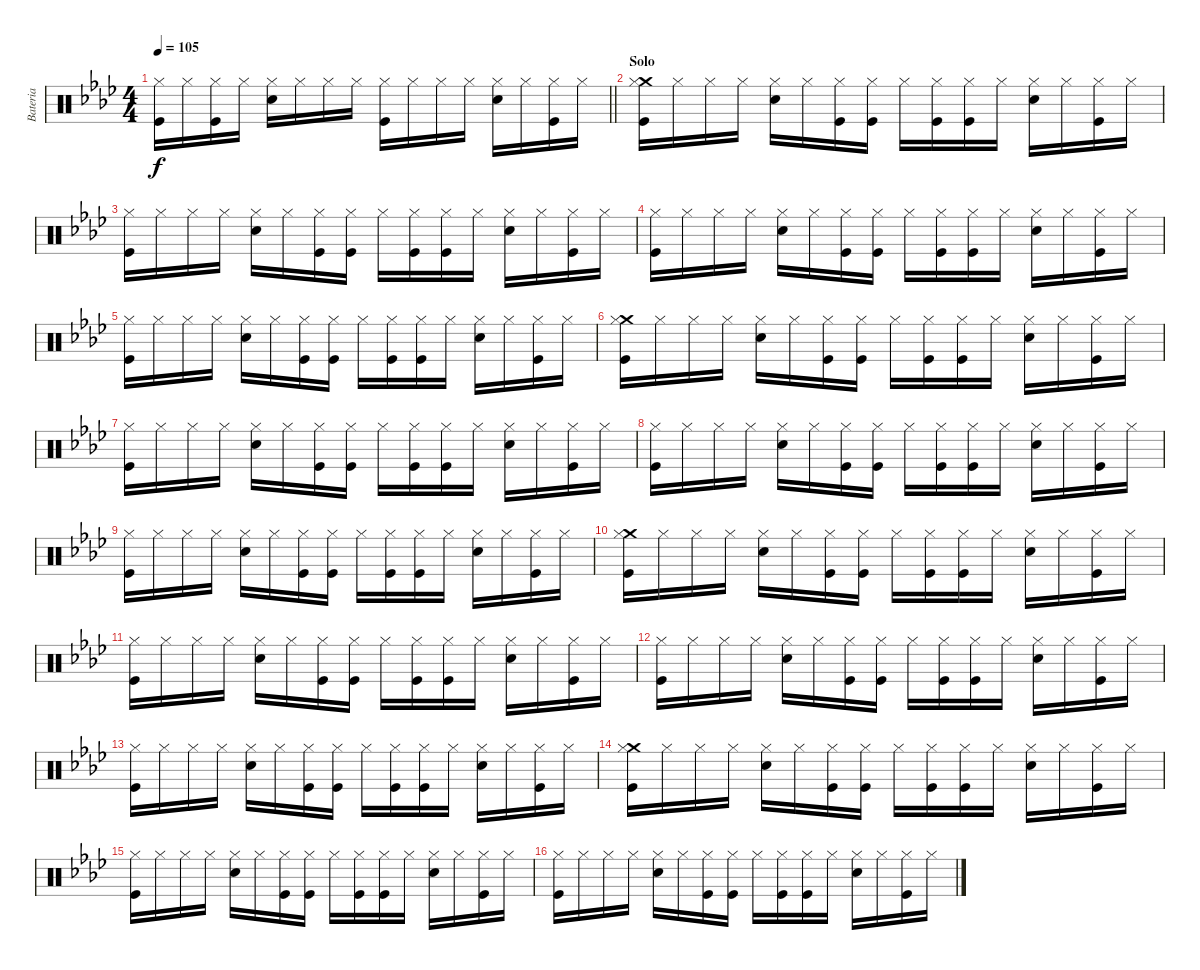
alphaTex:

\track ("Bateria" "Bateria") {instrument percussion}
\staff {score}
\articulation defaults
\ts (4 4)
\tempo 105
\clef neutral
\barLineRight lightlight
\ks fminor
("Kick (hit)" "Hi-Hat (closed)").16{dy f} "Hi-Hat (closed)".16 ("Kick (hit)" "Hi-Hat (closed)").16 "Hi-Hat (closed)".16 ("Snare (hit) 2" "Hi-Hat (closed)").16 "Hi-Hat (closed)".16 "Hi-Hat (closed)".16 "Hi-Hat (closed)".16 ("Hi-Hat (closed)" "Kick (hit)").16 "Hi-Hat (closed)".16 "Hi-Hat (closed)".16 "Hi-Hat (closed)".16 ("Hi-Hat (closed)" "Snare (hit) 2").16 "Hi-Hat (closed)".16 ("Hi-Hat (closed)" "Kick (hit)").16 "Hi-Hat (closed)".16 |
\section ("" "Solo")
("Crash medium (hit)" "Kick (hit)" "Hi-Hat (closed)").16 "Hi-Hat (closed)".16 "Hi-Hat (closed)".16 "Hi-Hat (closed)".16 ("Snare (hit) 2" "Hi-Hat (closed)").16 "Hi-Hat (closed)".16 ("Hi-Hat (closed)" "Kick (hit)").16 ("Hi-Hat (closed)" "Kick (hit)").16 "Hi-Hat (closed)".16 ("Kick (hit)" "Hi-Hat (closed)").16 ("Hi-Hat (closed)" "Kick (hit)").16 "Hi-Hat (closed)".16 ("Hi-Hat (closed)" "Snare (hit) 2").16 "Hi-Hat (closed)".16 ("Hi-Hat (closed)" "Kick (hit)").16 "Hi-Hat (closed)".16 |
("Kick (hit)" "Hi-Hat (closed)").16 "Hi-Hat (closed)".16 "Hi-Hat (closed)".16 "Hi-Hat (closed)".16 ("Snare (hit) 2" "Hi-Hat (closed)").16 "Hi-Hat (closed)".16 ("Hi-Hat (closed)" "Kick (hit)").16 ("Hi-Hat (closed)" "Kick (hit)").16 "Hi-Hat (closed)".16 ("Hi-Hat (closed)" "Kick (hit)").16 ("Hi-Hat (closed)" "Kick (hit)").16 "Hi-Hat (closed)".16 ("Hi-Hat (closed)" "Snare (hit) 2").16 "Hi-Hat (closed)".16 ("Hi-Hat (closed)" "Kick (hit)").16 "Hi-Hat (closed)".16 |
("Kick (hit)" "Hi-Hat (closed)").16 "Hi-Hat (closed)".16 "Hi-Hat (closed)".16 "Hi-Hat (closed)".16 ("Snare (hit) 2" "Hi-Hat (closed)").16 "Hi-Hat (closed)".16 ("Hi-Hat (closed)" "Kick (hit)").16 ("Hi-Hat (closed)" "Kick (hit)").16 "Hi-Hat (closed)".16 ("Kick (hit)" "Hi-Hat (closed)").16 ("Hi-Hat (closed)" "Kick (hit)").16 "Hi-Hat (closed)".16 ("Hi-Hat (closed)" "Snare (hit) 2").16 "Hi-Hat (closed)".16 ("Hi-Hat (closed)" "Kick (hit)").16 "Hi-Hat (closed)".16 |
("Kick (hit)" "Hi-Hat (closed)").16 "Hi-Hat (closed)".16 "Hi-Hat (closed)".16 "Hi-Hat (closed)".16 ("Snare (hit) 2" "Hi-Hat (closed)").16 "Hi-Hat (closed)".16 ("Hi-Hat (closed)" "Kick (hit)").16 ("Hi-Hat (closed)" "Kick (hit)").16 "Hi-Hat (closed)".16 ("Hi-Hat (closed)" "Kick (hit)").16 ("Hi-Hat (closed)" "Kick (hit)").16 "Hi-Hat (closed)".16 ("Hi-Hat (closed)" "Snare (hit) 2").16 "Hi-Hat (closed)".16 ("Hi-Hat (closed)" "Kick (hit)").16 "Hi-Hat (closed)".16 |
("Crash medium (hit)" "Kick (hit)" "Hi-Hat (closed)").16 "Hi-Hat (closed)".16 "Hi-Hat (closed)".16 "Hi-Hat (closed)".16 ("Snare (hit) 2" "Hi-Hat (closed)").16 "Hi-Hat (closed)".16 ("Hi-Hat (closed)" "Kick (hit)").16 ("Hi-Hat (closed)" "Kick (hit)").16 "Hi-Hat (closed)".16 ("Kick (hit)" "Hi-Hat (closed)").16 ("Hi-Hat (closed)" "Kick (hit)").16 "Hi-Hat (closed)".16 ("Hi-Hat (closed)" "Snare (hit) 2").16 "Hi-Hat (closed)".16 ("Hi-Hat (closed)" "Kick (hit)").16 "Hi-Hat (closed)".16 |
("Kick (hit)" "Hi-Hat (closed)").16 "Hi-Hat (closed)".16 "Hi-Hat (closed)".16 "Hi-Hat (closed)".16 ("Snare (hit) 2" "Hi-Hat (closed)").16 "Hi-Hat (closed)".16 ("Hi-Hat (closed)" "Kick (hit)").16 ("Hi-Hat (closed)" "Kick (hit)").16 "Hi-Hat (closed)".16 ("Hi-Hat (closed)" "Kick (hit)").16 ("Hi-Hat (closed)" "Kick (hit)").16 "Hi-Hat (closed)".16 ("Hi-Hat (closed)" "Snare (hit) 2").16 "Hi-Hat (closed)".16 ("Hi-Hat (closed)" "Kick (hit)").16 "Hi-Hat (closed)".16 |
("Kick (hit)" "Hi-Hat (closed)").16 "Hi-Hat (closed)".16 "Hi-Hat (closed)".16 "Hi-Hat (closed)".16 ("Snare (hit) 2" "Hi-Hat (closed)").16 "Hi-Hat (closed)".16 ("Hi-Hat (closed)" "Kick (hit)").16 ("Hi-Hat (closed)" "Kick (hit)").16 "Hi-Hat (closed)".16 ("Kick (hit)" "Hi-Hat (closed)").16 ("Hi-Hat (closed)" "Kick (hit)").16 "Hi-Hat (closed)".16 ("Hi-Hat (closed)" "Snare (hit) 2").16 "Hi-Hat (closed)".16 ("Hi-Hat (closed)" "Kick (hit)").16 "Hi-Hat (closed)".16 |
("Kick (hit)" "Hi-Hat (closed)").16 "Hi-Hat (closed)".16 "Hi-Hat (closed)".16 "Hi-Hat (closed)".16 ("Snare (hit) 2" "Hi-Hat (closed)").16 "Hi-Hat (closed)".16 ("Hi-Hat (closed)" "Kick (hit)").16 ("Hi-Hat (closed)" "Kick (hit)").16 "Hi-Hat (closed)".16 ("Hi-Hat (closed)" "Kick (hit)").16 ("Hi-Hat (closed)" "Kick (hit)").16 "Hi-Hat (closed)".16 ("Hi-Hat (closed)" "Snare (hit) 2").16 "Hi-Hat (closed)".16 ("Hi-Hat (closed)" "Kick (hit)").16 "Hi-Hat (closed)".16 |
("Crash medium (hit)" "Kick (hit)" "Hi-Hat (closed)").16 "Hi-Hat (closed)".16 "Hi-Hat (closed)".16 "Hi-Hat (closed)".16 ("Snare (hit) 2" "Hi-Hat (closed)").16 "Hi-Hat (closed)".16 ("Hi-Hat (closed)" "Kick (hit)").16 ("Hi-Hat (closed)" "Kick (hit)").16 "Hi-Hat (closed)".16 ("Kick (hit)" "Hi-Hat (closed)").16 ("Hi-Hat (closed)" "Kick (hit)").16 "Hi-Hat (closed)".16 ("Hi-Hat (closed)" "Snare (hit) 2").16 "Hi-Hat (closed)".16 ("Hi-Hat (closed)" "Kick (hit)").16 "Hi-Hat (closed)".16 |
("Kick (hit)" "Hi-Hat (closed)").16 "Hi-Hat (closed)".16 "Hi-Hat (closed)".16 "Hi-Hat (closed)".16 ("Snare (hit) 2" "Hi-Hat (closed)").16 "Hi-Hat (closed)".16 ("Hi-Hat (closed)" "Kick (hit)").16 ("Hi-Hat (closed)" "Kick (hit)").16 "Hi-Hat (closed)".16 ("Hi-Hat (closed)" "Kick (hit)").16 ("Hi-Hat (closed)" "Kick (hit)").16 "Hi-Hat (closed)".16 ("Hi-Hat (closed)" "Snare (hit) 2").16 "Hi-Hat (closed)".16 ("Hi-Hat (closed)" "Kick (hit)").16 "Hi-Hat (closed)".16 |
("Kick (hit)" "Hi-Hat (closed)").16 "Hi-Hat (closed)".16 "Hi-Hat (closed)".16 "Hi-Hat (closed)".16 ("Snare (hit) 2" "Hi-Hat (closed)").16 "Hi-Hat (closed)".16 ("Hi-Hat (closed)" "Kick (hit)").16 ("Hi-Hat (closed)" "Kick (hit)").16 "Hi-Hat (closed)".16 ("Kick (hit)" "Hi-Hat (closed)").16 ("Hi-Hat (closed)" "Kick (hit)").16 "Hi-Hat (closed)".16 ("Hi-Hat (closed)" "Snare (hit) 2").16 "Hi-Hat (closed)".16 ("Hi-Hat (closed)" "Kick (hit)").16 "Hi-Hat (closed)".16 |
("Kick (hit)" "Hi-Hat (closed)").16 "Hi-Hat (closed)".16 "Hi-Hat (closed)".16 "Hi-Hat (closed)".16 ("Snare (hit) 2" "Hi-Hat (closed)").16 "Hi-Hat (closed)".16 ("Hi-Hat (closed)" "Kick (hit)").16 ("Hi-Hat (closed)" "Kick (hit)").16 "Hi-Hat (closed)".16 ("Hi-Hat (closed)" "Kick (hit)").16 ("Hi-Hat (closed)" "Kick (hit)").16 "Hi-Hat (closed)".16 ("Hi-Hat (closed)" "Snare (hit) 2").16 "Hi-Hat (closed)".16 ("Hi-Hat (closed)" "Kick (hit)").16 "Hi-Hat (closed)".16 |
("Crash medium (hit)" "Kick (hit)" "Hi-Hat (closed)").16 "Hi-Hat (closed)".16 "Hi-Hat (closed)".16 "Hi-Hat (closed)".16 ("Snare (hit) 2" "Hi-Hat (closed)").16 "Hi-Hat (closed)".16 ("Hi-Hat (closed)" "Kick (hit)").16 ("Hi-Hat (closed)" "Kick (hit)").16 "Hi-Hat (closed)".16 ("Kick (hit)" "Hi-Hat (closed)").16 ("Hi-Hat (closed)" "Kick (hit)").16 "Hi-Hat (closed)".16 ("Hi-Hat (closed)" "Snare (hit) 2").16 "Hi-Hat (closed)".16 ("Hi-Hat (closed)" "Kick (hit)").16 "Hi-Hat (closed)".16 |
("Kick (hit)" "Hi-Hat (closed)").16 "Hi-Hat (closed)".16 "Hi-Hat (closed)".16 "Hi-Hat (closed)".16 ("Snare (hit) 2" "Hi-Hat (closed)").16 "Hi-Hat (closed)".16 ("Hi-Hat (closed)" "Kick (hit)").16 ("Hi-Hat (closed)" "Kick (hit)").16 "Hi-Hat (closed)".16 ("Hi-Hat (closed)" "Kick (hit)").16 ("Hi-Hat (closed)" "Kick (hit)").16 "Hi-Hat (closed)".16 ("Hi-Hat (closed)" "Snare (hit) 2").16 "Hi-Hat (closed)".16 ("Hi-Hat (closed)" "Kick (hit)").16 "Hi-Hat (closed)".16 |
("Kick (hit)" "Hi-Hat (closed)").16 "Hi-Hat (closed)".16 "Hi-Hat (closed)".16 "Hi-Hat (closed)".16 ("Snare (hit) 2" "Hi-Hat (closed)").16 "Hi-Hat (closed)".16 ("Hi-Hat (closed)" "Kick (hit)").16 ("Hi-Hat (closed)" "Kick (hit)").16 "Hi-Hat (closed)".16 ("Kick (hit)" "Hi-Hat (closed)").16 ("Hi-Hat (closed)" "Kick (hit)").16 "Hi-Hat (closed)".16 ("Hi-Hat (closed)" "Snare (hit) 2").16 "Hi-Hat (closed)".16 ("Hi-Hat (closed)" "Kick (hit)").16 "Hi-Hat (closed)".16
